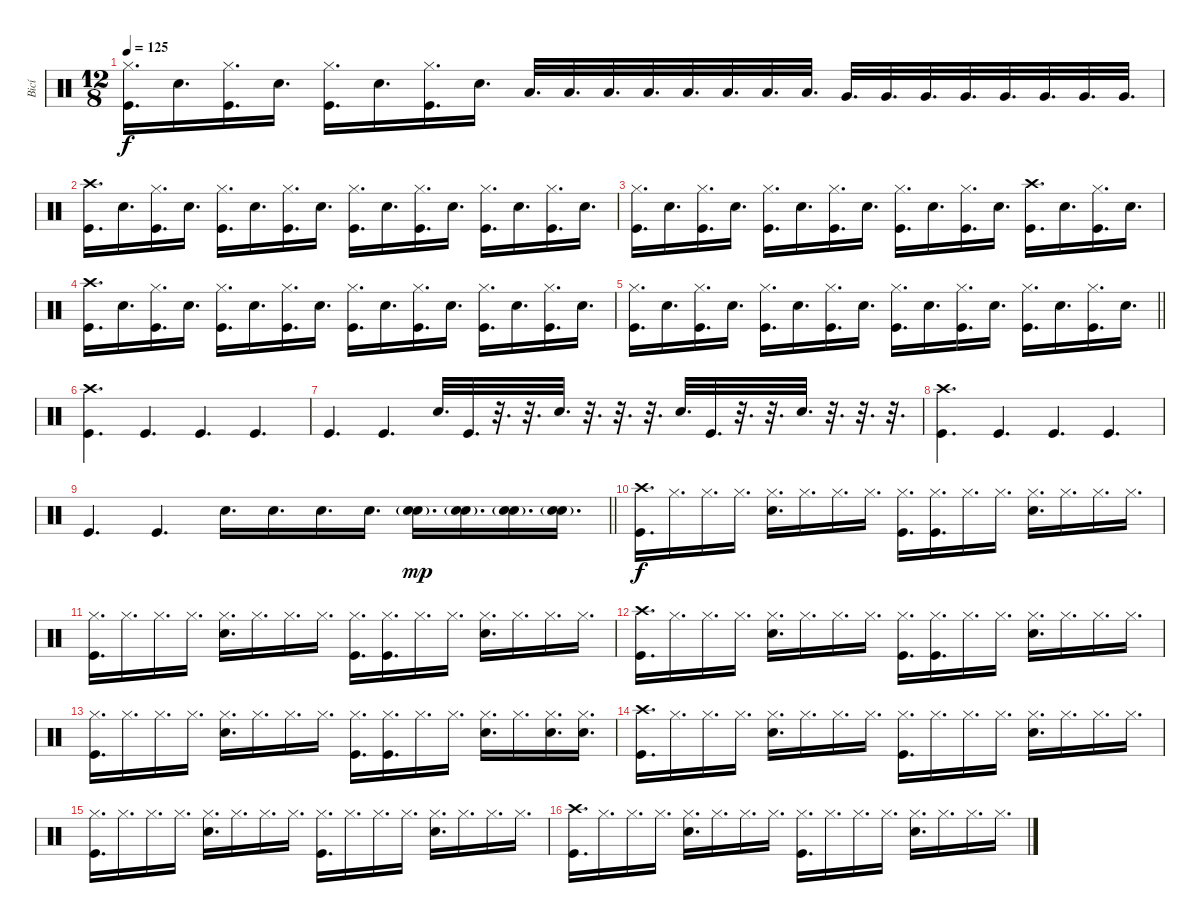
\track ("Bicí" "Bicí") {instrument percussion}
\staff {score}
\articulation defaults
\ts (12 8)
\tempo 125
\clef neutral
\ks c
("Hi-Hat (closed)" "Kick (hit)").16{d dy f} "Electric Snare (hit)".16{d} ("Hi-Hat (closed)" "Kick (hit)").16{d} "Electric Snare (hit)".16{d} ("Hi-Hat (closed)" "Kick (hit)").16{d} "Electric Snare (hit)".16{d} ("Hi-Hat (closed)" "Kick (hit)").16{d} "Electric Snare (hit)".16{d} "Low Tom (hit)".32{d} "Low Tom (hit)".32{d} "Low Tom (hit)".32{d} "Low Tom (hit)".32{d} "Low Tom (hit)".32{d} "Low Tom (hit)".32{d} "Low Tom (hit)".32{d} "Low Tom (hit)".32{d} "Very Low Tom (hit)".32{d} "Very Low Tom (hit)".32{d} "Very Low Tom (hit)".32{d} "Very Low Tom (hit)".32{d} "Very Low Tom (hit)".32{d} "Very Low Tom (hit)".32{d} "Very Low Tom (hit)".32{d} "Very Low Tom (hit)".32{d} |
("Crash high (hit)" "Kick (hit)").16{d} "Electric Snare (hit)".16{d} ("Hi-Hat (closed)" "Kick (hit)").16{d} "Electric Snare (hit)".16{d} ("Hi-Hat (closed)" "Kick (hit)").16{d} "Electric Snare (hit)".16{d} ("Hi-Hat (closed)" "Kick (hit)").16{d} "Electric Snare (hit)".16{d} ("Hi-Hat (closed)" "Kick (hit)").16{d} "Electric Snare (hit)".16{d} ("Hi-Hat (closed)" "Kick (hit)").16{d} "Electric Snare (hit)".16{d} ("Hi-Hat (closed)" "Kick (hit)").16{d} "Electric Snare (hit)".16{d} ("Hi-Hat (closed)" "Kick (hit)").16{d} "Electric Snare (hit)".16{d} |
("Hi-Hat (closed)" "Kick (hit)").16{d} "Electric Snare (hit)".16{d} ("Hi-Hat (closed)" "Kick (hit)").16{d} "Electric Snare (hit)".16{d} ("Hi-Hat (closed)" "Kick (hit)").16{d} "Electric Snare (hit)".16{d} ("Hi-Hat (closed)" "Kick (hit)").16{d} "Electric Snare (hit)".16{d} ("Hi-Hat (closed)" "Kick (hit)").16{d} "Electric Snare (hit)".16{d} ("Hi-Hat (closed)" "Kick (hit)").16{d} "Electric Snare (hit)".16{d} ("Crash high (hit)" "Kick (hit)").16{d} "Electric Snare (hit)".16{d} ("Hi-Hat (closed)" "Kick (hit)").16{d} "Electric Snare (hit)".16{d} |
("Crash high (hit)" "Kick (hit)").16{d} "Electric Snare (hit)".16{d} ("Hi-Hat (closed)" "Kick (hit)").16{d} "Electric Snare (hit)".16{d} ("Hi-Hat (closed)" "Kick (hit)").16{d} "Electric Snare (hit)".16{d} ("Hi-Hat (closed)" "Kick (hit)").16{d} "Electric Snare (hit)".16{d} ("Hi-Hat (closed)" "Kick (hit)").16{d} "Electric Snare (hit)".16{d} ("Hi-Hat (closed)" "Kick (hit)").16{d} "Electric Snare (hit)".16{d} ("Hi-Hat (closed)" "Kick (hit)").16{d} "Electric Snare (hit)".16{d} ("Hi-Hat (closed)" "Kick (hit)").16{d} "Electric Snare (hit)".16{d} |
\barLineRight lightlight
("Hi-Hat (closed)" "Kick (hit)").16{d} "Electric Snare (hit)".16{d} ("Hi-Hat (closed)" "Kick (hit)").16{d} "Electric Snare (hit)".16{d} ("Hi-Hat (closed)" "Kick (hit)").16{d} "Electric Snare (hit)".16{d} ("Hi-Hat (closed)" "Kick (hit)").16{d} "Electric Snare (hit)".16{d} ("Hi-Hat (closed)" "Kick (hit)").16{d} "Electric Snare (hit)".16{d} ("Hi-Hat (closed)" "Kick (hit)").16{d} "Electric Snare (hit)".16{d} ("Hi-Hat (closed)" "Kick (hit)").16{d} "Electric Snare (hit)".16{d} ("Hi-Hat (closed)" "Kick (hit)").16{d} "Electric Snare (hit)".16{d} |
("Crash high (hit)" "Kick (hit)").4{d} "Kick (hit)".4{d} "Kick (hit)".4{d} "Kick (hit)".4{d} |
"Kick (hit)".4{d} "Kick (hit)".4{d} "Electric Snare (hit)".32{d} "Kick (hit)".32{d} r.32{d} r.32{d} "Electric Snare (hit)".32{d} r.32{d} r.32{d} r.32{d} "Electric Snare (hit)".32{d} "Kick (hit)".32{d} r.32{d} r.32{d} "Electric Snare (hit)".32{d} r.32{d} r.32{d} r.32{d} |
("Crash high (hit)" "Kick (hit)").4{d} "Kick (hit)".4{d} "Kick (hit)".4{d} "Kick (hit)".4{d} |
\barLineRight lightlight "Kick (hit)".4{d} "Kick (hit)".4{d} "Electric Snare (hit)".16{d} "Electric Snare (hit)".16{d} "Electric Snare (hit)".16{d} "Electric Snare (hit)".16{d}
("Electric Snare (hit)"{g} "Electric Snare (hit)").16{d dy mp} ("Electric Snare (hit)"{g} "Electric Snare (hit)").16{d} ("Electric Snare (hit)"{g} "Electric Snare (hit)").16{d} ("Electric Snare (hit)"{g} "Electric Snare (hit)").16{d} |
("Crash high (hit)" "Kick (hit)").16{d dy f} "Hi-Hat (closed)".16{d} "Hi-Hat (closed)".16{d} "Hi-Hat (closed)".16{d} ("Hi-Hat (closed)" "Electric Snare (hit)").16{d} "Hi-Hat (closed)".16{d} "Hi-Hat (closed)".16{d} "Hi-Hat (closed)".16{d} ("Hi-Hat (closed)" "Kick (hit)").16{d} ("Hi-Hat (closed)" "Kick (hit)").16{d} "Hi-Hat (closed)".16{d} "Hi-Hat (closed)".16{d} ("Hi-Hat (closed)" "Electric Snare (hit)").16{d} "Hi-Hat (closed)".16{d} "Hi-Hat (closed)".16{d} "Hi-Hat (closed)".16{d} |
("Hi-Hat (closed)" "Kick (hit)").16{d} "Hi-Hat (closed)".16{d} "Hi-Hat (closed)".16{d} "Hi-Hat (closed)".16{d} ("Hi-Hat (closed)" "Electric Snare (hit)").16{d} "Hi-Hat (closed)".16{d} "Hi-Hat (closed)".16{d} "Hi-Hat (closed)".16{d} ("Hi-Hat (closed)" "Kick (hit)").16{d} ("Hi-Hat (closed)" "Kick (hit)").16{d} "Hi-Hat (closed)".16{d} "Hi-Hat (closed)".16{d} ("Hi-Hat (closed)" "Electric Snare (hit)").16{d} "Hi-Hat (closed)".16{d} "Hi-Hat (closed)".16{d} "Hi-Hat (closed)".16{d} |
("Crash high (hit)" "Kick (hit)").16{d} "Hi-Hat (closed)".16{d} "Hi-Hat (closed)".16{d} "Hi-Hat (closed)".16{d} ("Hi-Hat (closed)" "Electric Snare (hit)").16{d} "Hi-Hat (closed)".16{d} "Hi-Hat (closed)".16{d} "Hi-Hat (closed)".16{d} ("Hi-Hat (closed)" "Kick (hit)").16{d} ("Hi-Hat (closed)" "Kick (hit)").16{d} "Hi-Hat (closed)".16{d} "Hi-Hat (closed)".16{d} ("Hi-Hat (closed)" "Electric Snare (hit)").16{d} "Hi-Hat (closed)".16{d} "Hi-Hat (closed)".16{d} "Hi-Hat (closed)".16{d} |
("Hi-Hat (closed)" "Kick (hit)").16{d} "Hi-Hat (closed)".16{d} "Hi-Hat (closed)".16{d} "Hi-Hat (closed)".16{d} ("Hi-Hat (closed)" "Electric Snare (hit)").16{d} "Hi-Hat (closed)".16{d} "Hi-Hat (closed)".16{d} "Hi-Hat (closed)".16{d} ("Hi-Hat (closed)" "Kick (hit)").16{d} ("Hi-Hat (closed)" "Kick (hit)").16{d} "Hi-Hat (closed)".16{d} "Hi-Hat (closed)".16{d} ("Hi-Hat (closed)" "Electric Snare (hit)").16{d} "Hi-Hat (closed)".16{d} ("Hi-Hat (closed)" "Electric Snare (hit)").16{d} ("Hi-Hat (closed)" "Electric Snare (hit)").16{d} |
("Crash high (hit)" "Kick (hit)").16{d} "Hi-Hat (closed)".16{d} "Hi-Hat (closed)".16{d} "Hi-Hat (closed)".16{d} ("Hi-Hat (closed)" "Electric Snare (hit)").16{d} "Hi-Hat (closed)".16{d} "Hi-Hat (closed)".16{d} "Hi-Hat (closed)".16{d} ("Hi-Hat (closed)" "Kick (hit)").16{d} "Hi-Hat (closed)".16{d} "Hi-Hat (closed)".16{d} "Hi-Hat (closed)".16{d} ("Hi-Hat (closed)" "Electric Snare (hit)").16{d} "Hi-Hat (closed)".16{d} "Hi-Hat (closed)".16{d} "Hi-Hat (closed)".16{d} |
("Hi-Hat (closed)" "Kick (hit)").16{d} "Hi-Hat (closed)".16{d} "Hi-Hat (closed)".16{d} "Hi-Hat (closed)".16{d} ("Hi-Hat (closed)" "Electric Snare (hit)").16{d} "Hi-Hat (closed)".16{d} "Hi-Hat (closed)".16{d} "Hi-Hat (closed)".16{d} ("Hi-Hat (closed)" "Kick (hit)").16{d} "Hi-Hat (closed)".16{d} "Hi-Hat (closed)".16{d} "Hi-Hat (closed)".16{d} ("Hi-Hat (closed)" "Electric Snare (hit)").16{d} "Hi-Hat (closed)".16{d} "Hi-Hat (closed)".16{d} "Hi-Hat (closed)".16{d} |
("Crash high (hit)" "Kick (hit)").16{d} "Hi-Hat (closed)".16{d} "Hi-Hat (closed)".16{d} "Hi-Hat (closed)".16{d} ("Hi-Hat (closed)" "Electric Snare (hit)").16{d} "Hi-Hat (closed)".16{d} "Hi-Hat (closed)".16{d} "Hi-Hat (closed)".16{d} ("Hi-Hat (closed)" "Kick (hit)").16{d} "Hi-Hat (closed)".16{d} "Hi-Hat (closed)".16{d} "Hi-Hat (closed)".16{d} ("Hi-Hat (closed)" "Electric Snare (hit)").16{d} "Hi-Hat (closed)".16{d} "Hi-Hat (closed)".16{d} "Hi-Hat (closed)".16{d}
